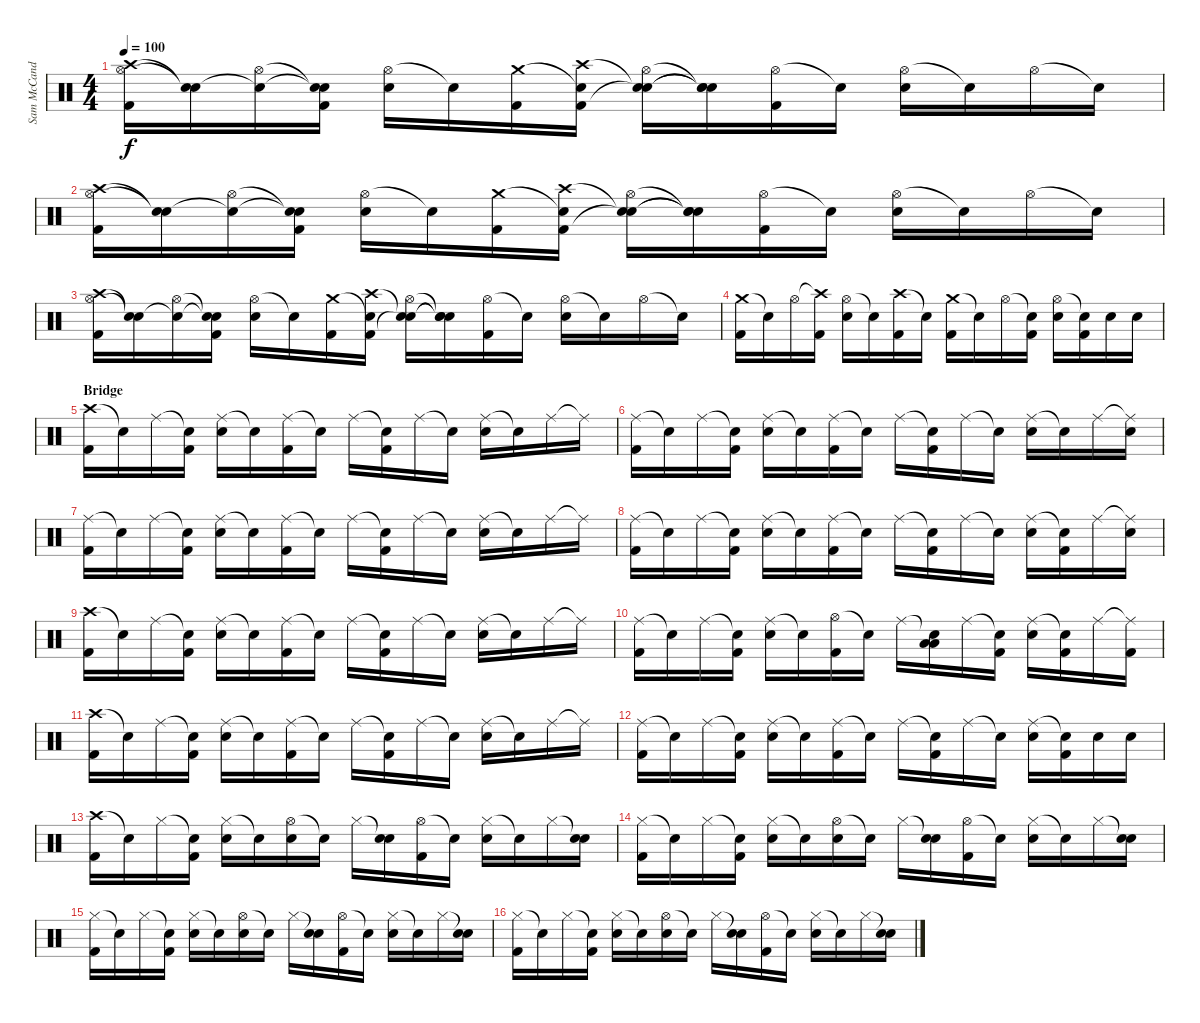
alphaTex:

\track ("Sam McCandless (Drums)" "Sam McCand") {instrument percussion}
\staff {score}
\articulation defaults
\ts (4 4)
\tempo 100
\clef neutral
\ks c
("Hi-Hat (open)" "Crash high (hit)" "Kick (hit) 2").16{dy f} ("Snare (hit)"{t} "Snare (hit)"{t}).16 ("Hi-Hat (open)" "Snare (hit)"{t}).16 ("Snare (hit)"{t} "Snare (hit)"{t} "Kick (hit) 2").16 ("Hi-Hat (open)" "Electric Snare (hit)").16 "Snare (hit)"{t}.16 ("Crash medium (hit)" "Kick (hit) 2").16 ("Snare (hit)"{t} "Crash high (hit)" "Kick (hit) 2").16 ("Hi-Hat (open)" "Snare (hit)"{t} "Snare (hit)"{t}).16 ("Snare (hit)"{t} "Snare (hit)"{t} "Snare (hit)"{t}).16 ("Hi-Hat (open)" "Kick (hit) 2").16 "Snare (hit)"{t}.16 ("Hi-Hat (open)" "Electric Snare (hit)").16 "Snare (hit)"{t}.16 "Hi-Hat (open)".16 "Snare (hit)"{t}.16 |
("Hi-Hat (open)" "Crash high (hit)" "Kick (hit) 2").16 ("Snare (hit)"{t} "Snare (hit)"{t}).16 ("Hi-Hat (open)" "Snare (hit)"{t}).16 ("Snare (hit)"{t} "Snare (hit)"{t} "Kick (hit) 2").16 ("Hi-Hat (open)" "Electric Snare (hit)").16 "Snare (hit)"{t}.16 ("Crash medium (hit)" "Kick (hit) 2").16 ("Snare (hit)"{t} "Crash high (hit)" "Kick (hit) 2").16 ("Hi-Hat (open)" "Snare (hit)"{t} "Snare (hit)"{t}).16 ("Snare (hit)"{t} "Snare (hit)"{t} "Snare (hit)"{t}).16 ("Hi-Hat (open)" "Kick (hit) 2").16 "Snare (hit)"{t}.16 ("Hi-Hat (open)" "Electric Snare (hit)").16 "Snare (hit)"{t}.16 "Hi-Hat (open)".16 "Snare (hit)"{t}.16 |
("Hi-Hat (open)" "Crash high (hit)" "Kick (hit) 2").16 ("Snare (hit)"{t} "Snare (hit)"{t}).16 ("Hi-Hat (open)" "Snare (hit)"{t}).16 ("Snare (hit)"{t} "Snare (hit)"{t} "Kick (hit) 2").16 ("Hi-Hat (open)" "Electric Snare (hit)").16 "Snare (hit)"{t}.16 ("Crash medium (hit)" "Kick (hit) 2").16 ("Snare (hit)"{t} "Crash high (hit)" "Kick (hit) 2").16 ("Hi-Hat (open)" "Snare (hit)"{t} "Snare (hit)"{t}).16 ("Snare (hit)"{t} "Snare (hit)"{t} "Snare (hit)"{t}).16 ("Hi-Hat (open)" "Kick (hit) 2").16 "Snare (hit)"{t}.16 ("Hi-Hat (open)" "Electric Snare (hit)").16 "Snare (hit)"{t}.16 "Hi-Hat (open)".16 "Snare (hit)"{t}.16 |
("Crash medium (hit)" "Kick (hit) 2").16 "Snare (hit)"{t}.16 "Hi-Hat (open)".16 ("Crash high (hit)"{t} "Kick (hit) 2").16 ("Hi-Hat (open)" "Electric Snare (hit)").16 "Snare (hit)"{t}.16 ("Crash high (hit)" "Kick (hit) 2").16 "Snare (hit)"{t}.16 ("Crash medium (hit)" "Kick (hit) 2").16 "Snare (hit)"{t}.16 "Hi-Hat (open)".16 ("Snare (hit)"{t} "Kick (hit) 2").16 ("Hi-Hat (open)" "Electric Snare (hit)").16 ("Snare (hit)"{t} "Kick (hit) 2").16 "Electric Snare (hit)".16 "Electric Snare (hit)".16 |
\section ("" "Bridge")
("Crash high (hit)" "Kick (hit) 2").16 "Snare (hit)"{t}.16 "Ride (middle)".16 ("Snare (hit)"{t} "Kick (hit) 2").16 ("Ride (middle)" "Electric Snare (hit)").16 "Snare (hit)"{t}.16 ("Ride (middle)" "Kick (hit) 2").16 "Snare (hit)"{t}.16 "Ride (middle)".16 ("Snare (hit)"{t} "Kick (hit) 2").16 "Ride (middle)".16 "Snare (hit)"{t}.16 ("Ride (middle)" "Electric Snare (hit)").16 "Snare (hit)"{t}.16 "Ride (middle)".16 "Ride (middle)"{t}.16 |
("Ride (middle)" "Kick (hit) 2").16 "Snare (hit)"{t}.16 "Ride (middle)".16 ("Snare (hit)"{t} "Kick (hit) 2").16 ("Ride (middle)" "Electric Snare (hit)").16 "Snare (hit)"{t}.16 ("Ride (middle)" "Kick (hit) 2").16 "Snare (hit)"{t}.16 "Ride (middle)".16 ("Snare (hit)"{t} "Kick (hit) 2").16 "Ride (middle)".16 "Snare (hit)"{t}.16 ("Ride (middle)" "Electric Snare (hit)").16 "Snare (hit)"{t}.16 "Ride (middle)".16 ("Ride (middle)"{t} "Electric Snare (hit)").16 |
("Ride (middle)" "Kick (hit) 2").16 "Snare (hit)"{t}.16 "Ride (middle)".16 ("Snare (hit)"{t} "Kick (hit) 2").16 ("Ride (middle)" "Electric Snare (hit)").16 "Snare (hit)"{t}.16 ("Ride (middle)" "Kick (hit) 2").16 "Snare (hit)"{t}.16 "Ride (middle)".16 ("Snare (hit)"{t} "Kick (hit) 2").16 "Ride (middle)".16 "Snare (hit)"{t}.16 ("Ride (middle)" "Electric Snare (hit)").16 "Snare (hit)"{t}.16 "Ride (middle)".16 "Ride (middle)"{t}.16 |
("Ride (middle)" "Kick (hit) 2").16 "Snare (hit)"{t}.16 "Ride (middle)".16 ("Snare (hit)"{t} "Kick (hit) 2").16 ("Ride (middle)" "Electric Snare (hit)").16 "Snare (hit)"{t}.16 ("Ride (middle)" "Kick (hit) 2").16 "Snare (hit)"{t}.16 "Ride (middle)".16 ("Snare (hit)"{t} "Kick (hit) 2").16 "Ride (middle)".16 "Snare (hit)"{t}.16 ("Ride (middle)" "Electric Snare (hit)").16 ("Snare (hit)"{t} "Kick (hit) 2").16 "Ride (middle)".16 ("Ride (middle)"{t} "Electric Snare (hit)").16 |
("Crash high (hit)" "Kick (hit) 2").16 "Snare (hit)"{t}.16 "Ride (middle)".16 ("Snare (hit)"{t} "Kick (hit) 2").16 ("Ride (middle)" "Electric Snare (hit)").16 "Snare (hit)"{t}.16 ("Ride (middle)" "Kick (hit) 2").16 "Snare (hit)"{t}.16 "Ride (middle)".16 ("Snare (hit)"{t} "Kick (hit) 2").16 "Ride (middle)".16 "Snare (hit)"{t}.16 ("Ride (middle)" "Electric Snare (hit)").16 "Snare (hit)"{t}.16 "Ride (middle)".16 "Ride (middle)"{t}.16 |
("Ride (middle)" "Kick (hit) 2").16 "Snare (hit)"{t}.16 "Ride (middle)".16 ("Snare (hit)"{t} "Kick (hit) 2").16 ("Ride (middle)" "Electric Snare (hit)").16 "Snare (hit)"{t}.16 ("Hi-Hat (open)" "Kick (hit) 2").16 "Snare (hit)"{t}.16 "Ride (middle)".16 ("Snare (hit)"{t} "Low Tom (hit)" "Low Tom (hit)").16 "Ride (middle)".16 ("Snare (hit)"{t} "Kick (hit) 2").16 ("Ride (middle)" "Electric Snare (hit)").16 ("Snare (hit)"{t} "Kick (hit) 2").16 "Ride (middle)".16 ("Ride (middle)"{t} "Kick (hit) 2").16 |
("Crash high (hit)" "Kick (hit) 2").16 "Snare (hit)"{t}.16 "Ride (middle)".16 ("Snare (hit)"{t} "Kick (hit) 2").16 ("Ride (middle)" "Electric Snare (hit)").16 "Snare (hit)"{t}.16 ("Ride (middle)" "Kick (hit) 2").16 "Snare (hit)"{t}.16 "Ride (middle)".16 ("Snare (hit)"{t} "Kick (hit) 2").16 "Ride (middle)".16 "Snare (hit)"{t}.16 ("Ride (middle)" "Electric Snare (hit)").16 "Snare (hit)"{t}.16 "Ride (middle)".16 "Ride (middle)"{t}.16 |
("Ride (middle)" "Kick (hit) 2").16 "Snare (hit)"{t}.16 "Ride (middle)".16 ("Snare (hit)"{t} "Kick (hit) 2").16 ("Ride (middle)" "Electric Snare (hit)").16 "Snare (hit)"{t}.16 ("Ride (middle)" "Kick (hit) 2").16 "Snare (hit)"{t}.16 "Ride (middle)".16 ("Snare (hit)"{t} "Kick (hit) 2").16 "Ride (middle)".16 "Snare (hit)"{t}.16 ("Ride (middle)" "Electric Snare (hit)").16 ("Snare (hit)"{t} "Kick (hit) 2").16 "Electric Snare (hit)".16 "Electric Snare (hit)".16 |
("Crash high (hit)" "Kick (hit) 2").16 "Snare (hit)"{t}.16 "Hi-Hat (closed)".16 ("Snare (hit)"{t} "Kick (hit) 2").16 ("Hi-Hat (closed)" "Electric Snare (hit)").16 "Snare (hit)"{t}.16 ("Hi-Hat (open)" "Electric Snare (hit)").16 "Snare (hit)"{t}.16 "Hi-Hat (closed)".16 ("Snare (hit)"{t} "Electric Snare (hit)").16 ("Hi-Hat (open)" "Kick (hit) 2").16 "Snare (hit)"{t}.16 ("Hi-Hat (closed)" "Electric Snare (hit)").16 "Snare (hit)"{t}.16 "Hi-Hat (closed)".16 ("Snare (hit)"{t} "Electric Snare (hit)").16 |
("Hi-Hat (closed)" "Kick (hit) 2").16 "Snare (hit)"{t}.16 "Hi-Hat (closed)".16 ("Snare (hit)"{t} "Kick (hit) 2").16 ("Hi-Hat (closed)" "Electric Snare (hit)").16 "Snare (hit)"{t}.16 ("Hi-Hat (open)" "Electric Snare (hit)").16 "Snare (hit)"{t}.16 "Hi-Hat (closed)".16 ("Snare (hit)"{t} "Electric Snare (hit)").16 ("Hi-Hat (open)" "Kick (hit) 2").16 "Snare (hit)"{t}.16 ("Hi-Hat (closed)" "Electric Snare (hit)").16 "Snare (hit)"{t}.16 "Hi-Hat (closed)".16 ("Snare (hit)"{t} "Electric Snare (hit)").16 |
("Hi-Hat (closed)" "Kick (hit) 2").16 "Snare (hit)"{t}.16 "Hi-Hat (closed)".16 ("Snare (hit)"{t} "Kick (hit) 2").16 ("Hi-Hat (closed)" "Electric Snare (hit)").16 "Snare (hit)"{t}.16 ("Hi-Hat (open)" "Electric Snare (hit)").16 "Snare (hit)"{t}.16 "Hi-Hat (closed)".16 ("Snare (hit)"{t} "Electric Snare (hit)").16 ("Hi-Hat (open)" "Kick (hit) 2").16 "Snare (hit)"{t}.16 ("Hi-Hat (closed)" "Electric Snare (hit)").16 "Snare (hit)"{t}.16 "Hi-Hat (closed)".16 ("Snare (hit)"{t} "Electric Snare (hit)").16 |
("Hi-Hat (closed)" "Kick (hit) 2").16 "Snare (hit)"{t}.16 "Hi-Hat (closed)".16 ("Snare (hit)"{t} "Kick (hit) 2").16 ("Hi-Hat (closed)" "Electric Snare (hit)").16 "Snare (hit)"{t}.16 ("Hi-Hat (open)" "Electric Snare (hit)").16 "Snare (hit)"{t}.16 "Hi-Hat (closed)".16 ("Snare (hit)"{t} "Electric Snare (hit)").16 ("Hi-Hat (open)" "Kick (hit) 2").16 "Snare (hit)"{t}.16 ("Hi-Hat (closed)" "Electric Snare (hit)").16 "Snare (hit)"{t}.16 "Hi-Hat (closed)".16 ("Snare (hit)"{t} "Electric Snare (hit)").16
